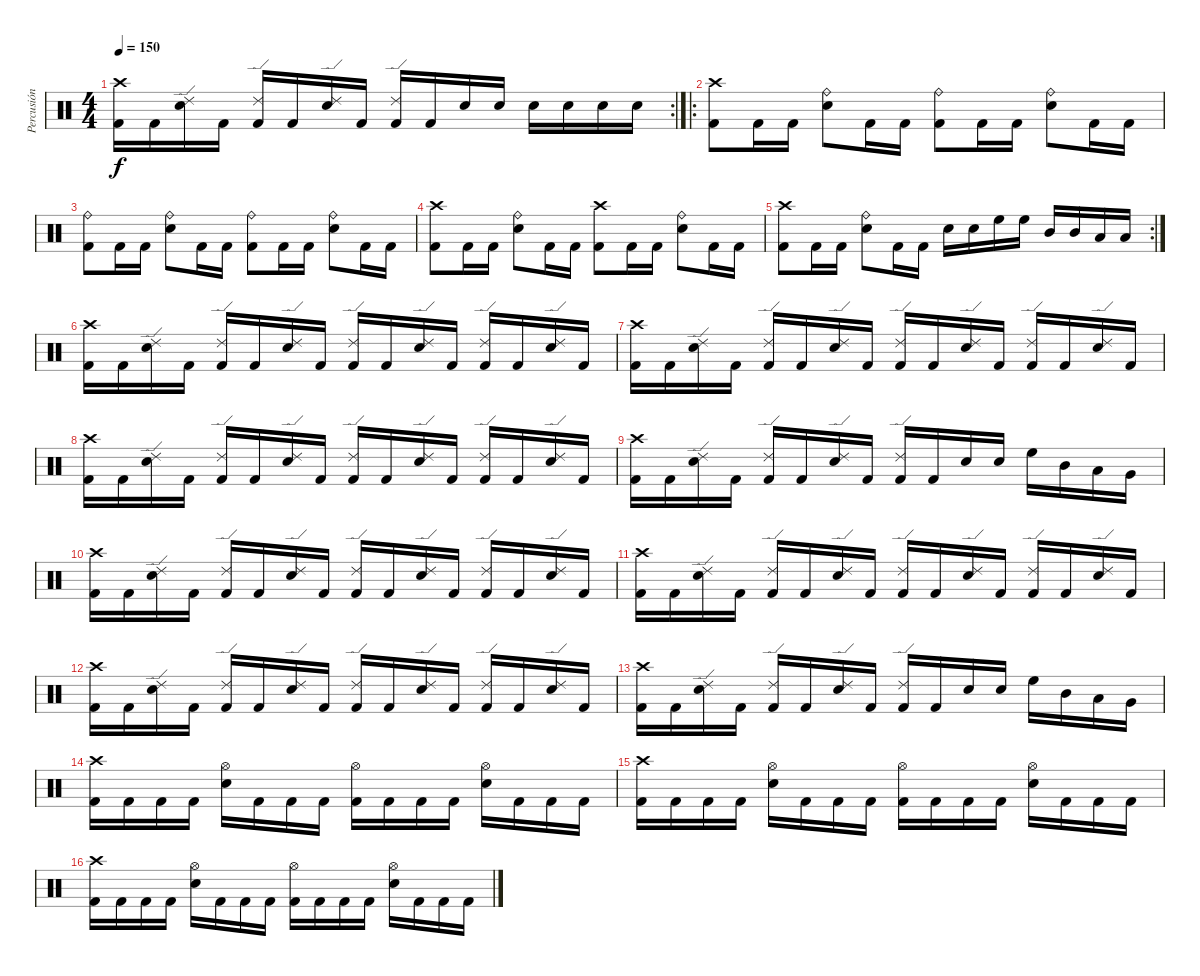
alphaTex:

\track ("Percusión" "Percusión") {instrument percussion}
\staff {score}
\articulation defaults
\rc 2
\ts (4 4)
\tempo 150
\clef neutral
\ks c
("Crash high (hit)" "Kick (hit) 2").16{dy f} "Kick (hit) 2".16 ("Ride (edge) 2" "Electric Snare (hit)").16 "Kick (hit) 2".16 ("Ride (edge) 2" "Kick (hit) 2").16 "Kick (hit) 2".16 ("Ride (edge) 2" "Electric Snare (hit)").16 "Kick (hit) 2".16 ("Ride (edge) 2" "Kick (hit) 2").16 "Kick (hit) 2".16 "Electric Snare (hit)".16 "Electric Snare (hit)".16 "Electric Snare (hit)".16 "Electric Snare (hit)".16 "Electric Snare (hit)".16 "Electric Snare (hit)".16 |
\ro
("Crash high (hit)" "Kick (hit) 2").8 "Kick (hit) 2".16 "Kick (hit) 2".16 ("Ride (bell)" "Electric Snare (hit)").8 "Kick (hit) 2".16 "Kick (hit) 2".16 ("Ride (bell)" "Kick (hit) 2").8 "Kick (hit) 2".16 "Kick (hit) 2".16 ("Ride (bell)" "Electric Snare (hit)").8 "Kick (hit) 2".16 "Kick (hit) 2".16 |
("Ride (bell)" "Kick (hit) 2").8 "Kick (hit) 2".16 "Kick (hit) 2".16 ("Ride (bell)" "Electric Snare (hit)").8 "Kick (hit) 2".16 "Kick (hit) 2".16 ("Ride (bell)" "Kick (hit) 2").8 "Kick (hit) 2".16 "Kick (hit) 2".16 ("Ride (bell)" "Electric Snare (hit)").8 "Kick (hit) 2".16 "Kick (hit) 2".16 |
("Crash high (hit)" "Kick (hit) 2").8 "Kick (hit) 2".16 "Kick (hit) 2".16 ("Ride (bell)" "Electric Snare (hit)").8 "Kick (hit) 2".16 "Kick (hit) 2".16 ("Crash high (hit)" "Kick (hit) 2").8 "Kick (hit) 2".16 "Kick (hit) 2".16 ("Ride (bell)" "Electric Snare (hit)").8 "Kick (hit) 2".16 "Kick (hit) 2".16 |
\rc 2
("Crash high (hit)" "Kick (hit) 2").8 "Kick (hit) 2".16 "Kick (hit) 2".16 ("Ride (bell)" "Electric Snare (hit)").8 "Kick (hit) 2".16 "Kick (hit) 2".16 "Electric Snare (hit)".16 "Electric Snare (hit)".16 "High Floor Tom (hit)".16 "High Floor Tom (hit)".16 "Mid Tom (hit)".16 "Mid Tom (hit)".16 "Low Tom (hit)".16 "Low Tom (hit)".16 |
("Crash high (hit)" "Kick (hit) 2").16 "Kick (hit) 2".16 ("Ride (edge) 2" "Electric Snare (hit)").16 "Kick (hit) 2".16 ("Ride (edge) 2" "Kick (hit) 2").16 "Kick (hit) 2".16 ("Ride (edge) 2" "Electric Snare (hit)").16 "Kick (hit) 2".16 ("Ride (edge) 2" "Kick (hit) 2").16 "Kick (hit) 2".16 ("Ride (edge) 2" "Electric Snare (hit)").16 "Kick (hit) 2".16 ("Ride (edge) 2" "Kick (hit) 2").16 "Kick (hit) 2".16 ("Ride (edge) 2" "Electric Snare (hit)").16 "Kick (hit) 2".16 |
("Crash high (hit)" "Kick (hit) 2").16 "Kick (hit) 2".16 ("Ride (edge) 2" "Electric Snare (hit)").16 "Kick (hit) 2".16 ("Ride (edge) 2" "Kick (hit) 2").16 "Kick (hit) 2".16 ("Ride (edge) 2" "Electric Snare (hit)").16 "Kick (hit) 2".16 ("Ride (edge) 2" "Kick (hit) 2").16 "Kick (hit) 2".16 ("Ride (edge) 2" "Electric Snare (hit)").16 "Kick (hit) 2".16 ("Ride (edge) 2" "Kick (hit) 2").16 "Kick (hit) 2".16 ("Ride (edge) 2" "Electric Snare (hit)").16 "Kick (hit) 2".16 |
("Crash high (hit)" "Kick (hit) 2").16 "Kick (hit) 2".16 ("Ride (edge) 2" "Electric Snare (hit)").16 "Kick (hit) 2".16 ("Ride (edge) 2" "Kick (hit) 2").16 "Kick (hit) 2".16 ("Ride (edge) 2" "Electric Snare (hit)").16 "Kick (hit) 2".16 ("Ride (edge) 2" "Kick (hit) 2").16 "Kick (hit) 2".16 ("Ride (edge) 2" "Electric Snare (hit)").16 "Kick (hit) 2".16 ("Ride (edge) 2" "Kick (hit) 2").16 "Kick (hit) 2".16 ("Ride (edge) 2" "Electric Snare (hit)").16 "Kick (hit) 2".16 |
("Crash high (hit)" "Kick (hit) 2").16 "Kick (hit) 2".16 ("Ride (edge) 2" "Electric Snare (hit)").16 "Kick (hit) 2".16 ("Ride (edge) 2" "Kick (hit) 2").16 "Kick (hit) 2".16 ("Ride (edge) 2" "Electric Snare (hit)").16 "Kick (hit) 2".16 ("Ride (edge) 2" "Kick (hit) 2").16 "Kick (hit) 2".16 "Electric Snare (hit)".16 "Electric Snare (hit)".16 "High Floor Tom (hit)".16 "Mid Tom (hit)".16 "Low Tom (hit)".16 "Very Low Tom (hit)".16 |
("Crash high (hit)" "Kick (hit) 2").16 "Kick (hit) 2".16 ("Ride (edge) 2" "Electric Snare (hit)").16 "Kick (hit) 2".16 ("Ride (edge) 2" "Kick (hit) 2").16 "Kick (hit) 2".16 ("Ride (edge) 2" "Electric Snare (hit)").16 "Kick (hit) 2".16 ("Ride (edge) 2" "Kick (hit) 2").16 "Kick (hit) 2".16 ("Ride (edge) 2" "Electric Snare (hit)").16 "Kick (hit) 2".16 ("Ride (edge) 2" "Kick (hit) 2").16 "Kick (hit) 2".16 ("Ride (edge) 2" "Electric Snare (hit)").16 "Kick (hit) 2".16 |
("Crash high (hit)" "Kick (hit) 2").16 "Kick (hit) 2".16 ("Ride (edge) 2" "Electric Snare (hit)").16 "Kick (hit) 2".16 ("Ride (edge) 2" "Kick (hit) 2").16 "Kick (hit) 2".16 ("Ride (edge) 2" "Electric Snare (hit)").16 "Kick (hit) 2".16 ("Ride (edge) 2" "Kick (hit) 2").16 "Kick (hit) 2".16 ("Ride (edge) 2" "Electric Snare (hit)").16 "Kick (hit) 2".16 ("Ride (edge) 2" "Kick (hit) 2").16 "Kick (hit) 2".16 ("Ride (edge) 2" "Electric Snare (hit)").16 "Kick (hit) 2".16 |
("Crash high (hit)" "Kick (hit) 2").16 "Kick (hit) 2".16 ("Ride (edge) 2" "Electric Snare (hit)").16 "Kick (hit) 2".16 ("Ride (edge) 2" "Kick (hit) 2").16 "Kick (hit) 2".16 ("Ride (edge) 2" "Electric Snare (hit)").16 "Kick (hit) 2".16 ("Ride (edge) 2" "Kick (hit) 2").16 "Kick (hit) 2".16 ("Ride (edge) 2" "Electric Snare (hit)").16 "Kick (hit) 2".16 ("Ride (edge) 2" "Kick (hit) 2").16 "Kick (hit) 2".16 ("Ride (edge) 2" "Electric Snare (hit)").16 "Kick (hit) 2".16 |
("Crash high (hit)" "Kick (hit) 2").16 "Kick (hit) 2".16 ("Ride (edge) 2" "Electric Snare (hit)").16 "Kick (hit) 2".16 ("Ride (edge) 2" "Kick (hit) 2").16 "Kick (hit) 2".16 ("Ride (edge) 2" "Electric Snare (hit)").16 "Kick (hit) 2".16 ("Ride (edge) 2" "Kick (hit) 2").16 "Kick (hit) 2".16 "Electric Snare (hit)".16 "Electric Snare (hit)".16 "High Floor Tom (hit)".16 "Mid Tom (hit)".16 "Low Tom (hit)".16 "Very Low Tom (hit)".16 |
("Crash high (hit)" "Kick (hit) 2").16 "Kick (hit) 2".16 "Kick (hit) 2".16 "Kick (hit) 2".16 ("Hi-Hat (open)" "Electric Snare (hit)").16 "Kick (hit) 2".16 "Kick (hit) 2".16 "Kick (hit) 2".16 ("Hi-Hat (open)" "Kick (hit) 2").16 "Kick (hit) 2".16 "Kick (hit) 2".16 "Kick (hit) 2".16 ("Hi-Hat (open)" "Electric Snare (hit)").16 "Kick (hit) 2".16 "Kick (hit) 2".16 "Kick (hit) 2".16 |
("Crash high (hit)" "Kick (hit) 2").16 "Kick (hit) 2".16 "Kick (hit) 2".16 "Kick (hit) 2".16 ("Hi-Hat (open)" "Electric Snare (hit)").16 "Kick (hit) 2".16 "Kick (hit) 2".16 "Kick (hit) 2".16 ("Hi-Hat (open)" "Kick (hit) 2").16 "Kick (hit) 2".16 "Kick (hit) 2".16 "Kick (hit) 2".16 ("Hi-Hat (open)" "Electric Snare (hit)").16 "Kick (hit) 2".16 "Kick (hit) 2".16 "Kick (hit) 2".16 |
("Crash high (hit)" "Kick (hit) 2").16 "Kick (hit) 2".16 "Kick (hit) 2".16 "Kick (hit) 2".16 ("Hi-Hat (open)" "Electric Snare (hit)").16 "Kick (hit) 2".16 "Kick (hit) 2".16 "Kick (hit) 2".16 ("Hi-Hat (open)" "Kick (hit) 2").16 "Kick (hit) 2".16 "Kick (hit) 2".16 "Kick (hit) 2".16 ("Hi-Hat (open)" "Electric Snare (hit)").16 "Kick (hit) 2".16 "Kick (hit) 2".16 "Kick (hit) 2".16
